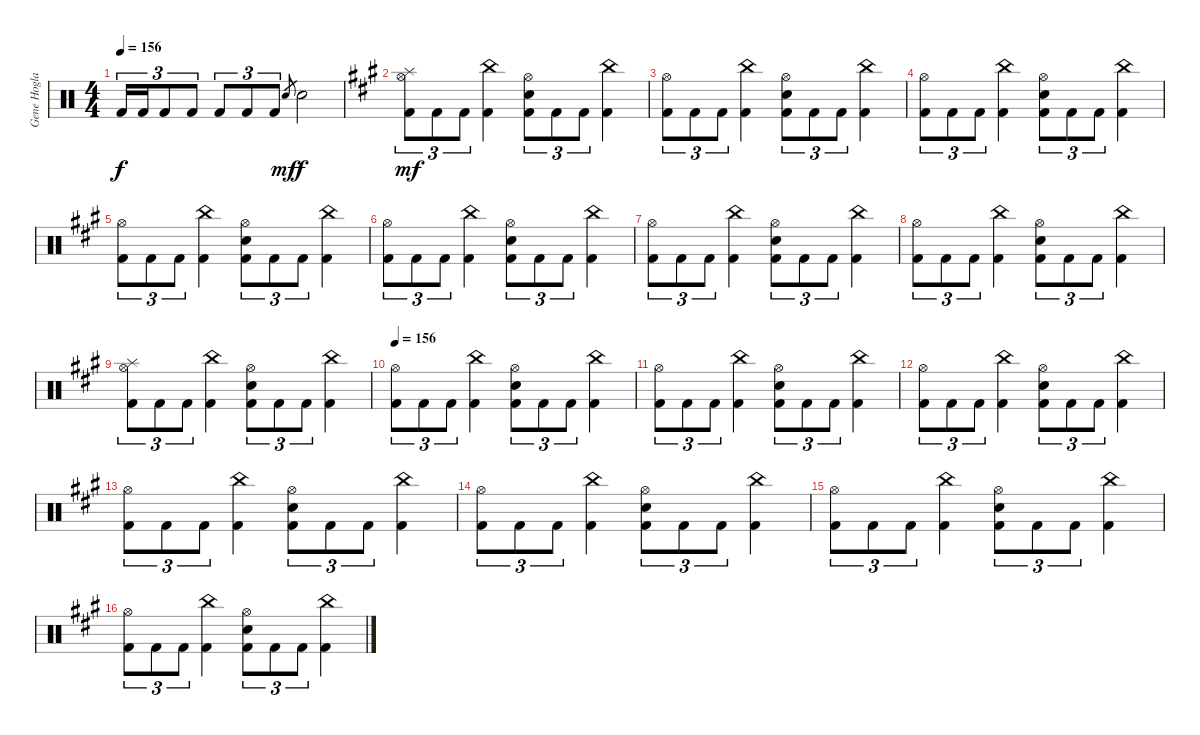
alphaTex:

\track ("Gene Hoglan" "Gene Hogla") {instrument percussion}
\staff {score}
\articulation defaults
\ts (4 4)
\tempo 156
\clef neutral
\ks c "Kick (hit) 2".16{tu (3 2) dy f} "Kick (hit) 2".16{tu (3 2)} "Kick (hit) 2".8{tu (3 2)} "Kick (hit) 2".8{tu (3 2)} "Kick (hit) 2".8{tu (3 2)} "Kick (hit) 2".8{tu (3 2)} "Kick (hit) 2".8{tu (3 2)} "Electric Snare (hit)".8{gr dy mf} "Electric Snare (hit)".2{dy f}
|
\ks a
("Hi-Hat (open)" "Splash (hit)" "Kick (hit) 2").8{tu (3 2) dy mf} "Kick (hit) 2".8{tu (3 2)} "Kick (hit) 2".8{tu (3 2)} ("China (hit)" "Kick (hit) 2").4 ("Hi-Hat (open)" "Electric Snare (hit)" "Kick (hit) 2").8{tu (3 2)} "Kick (hit) 2".8{tu (3 2)} "Kick (hit) 2".8{tu (3 2)} ("China (hit)" "Kick (hit) 2").4 |
("Hi-Hat (open)" "Kick (hit) 2").8{tu (3 2)} "Kick (hit) 2".8{tu (3 2)} "Kick (hit) 2".8{tu (3 2)} ("China (hit)" "Kick (hit) 2").4 ("Hi-Hat (open)" "Electric Snare (hit)" "Kick (hit) 2").8{tu (3 2)} "Kick (hit) 2".8{tu (3 2)} "Kick (hit) 2".8{tu (3 2)} ("China (hit)" "Kick (hit) 2").4 |
("Hi-Hat (open)" "Kick (hit) 2").8{tu (3 2)} "Kick (hit) 2".8{tu (3 2)} "Kick (hit) 2".8{tu (3 2)} ("China (hit)" "Kick (hit) 2").4 ("Hi-Hat (open)" "Electric Snare (hit)" "Kick (hit) 2").8{tu (3 2)} "Kick (hit) 2".8{tu (3 2)} "Kick (hit) 2".8{tu (3 2)} ("China (hit)" "Kick (hit) 2").4 |
("Hi-Hat (open)" "Kick (hit) 2").8{tu (3 2)} "Kick (hit) 2".8{tu (3 2)} "Kick (hit) 2".8{tu (3 2)} ("China (hit)" "Kick (hit) 2").4 ("Hi-Hat (open)" "Electric Snare (hit)" "Kick (hit) 2").8{tu (3 2)} "Kick (hit) 2".8{tu (3 2)} "Kick (hit) 2".8{tu (3 2)} ("China (hit)" "Kick (hit) 2").4 |
("Hi-Hat (open)" "Kick (hit) 2").8{tu (3 2)} "Kick (hit) 2".8{tu (3 2)} "Kick (hit) 2".8{tu (3 2)} ("China (hit)" "Kick (hit) 2").4 ("Hi-Hat (open)" "Electric Snare (hit)" "Kick (hit) 2").8{tu (3 2)} "Kick (hit) 2".8{tu (3 2)} "Kick (hit) 2".8{tu (3 2)} ("China (hit)" "Kick (hit) 2").4 |
("Hi-Hat (open)" "Kick (hit) 2").8{tu (3 2)} "Kick (hit) 2".8{tu (3 2)} "Kick (hit) 2".8{tu (3 2)} ("China (hit)" "Kick (hit) 2").4 ("Hi-Hat (open)" "Electric Snare (hit)" "Kick (hit) 2").8{tu (3 2)} "Kick (hit) 2".8{tu (3 2)} "Kick (hit) 2".8{tu (3 2)} ("China (hit)" "Kick (hit) 2").4 |
("Hi-Hat (open)" "Kick (hit) 2").8{tu (3 2)} "Kick (hit) 2".8{tu (3 2)} "Kick (hit) 2".8{tu (3 2)} ("China (hit)" "Kick (hit) 2").4 ("Hi-Hat (open)" "Electric Snare (hit)" "Kick (hit) 2").8{tu (3 2)} "Kick (hit) 2".8{tu (3 2)} "Kick (hit) 2".8{tu (3 2)} ("China (hit)" "Kick (hit) 2").4 |
("Hi-Hat (open)" "Splash (hit)" "Kick (hit) 2").8{tu (3 2)} "Kick (hit) 2".8{tu (3 2)} "Kick (hit) 2".8{tu (3 2)} ("China (hit)" "Kick (hit) 2").4 ("Hi-Hat (open)" "Electric Snare (hit)" "Kick (hit) 2").8{tu (3 2)} "Kick (hit) 2".8{tu (3 2)} "Kick (hit) 2".8{tu (3 2)} ("China (hit)" "Kick (hit) 2").4 |
\tempo 156
("Hi-Hat (open)" "Kick (hit) 2").8{tu (3 2)} "Kick (hit) 2".8{tu (3 2)} "Kick (hit) 2".8{tu (3 2)} ("China (hit)" "Kick (hit) 2").4 ("Hi-Hat (open)" "Electric Snare (hit)" "Kick (hit) 2").8{tu (3 2)} "Kick (hit) 2".8{tu (3 2)} "Kick (hit) 2".8{tu (3 2)} ("China (hit)" "Kick (hit) 2").4 |
("Hi-Hat (open)" "Kick (hit) 2").8{tu (3 2)} "Kick (hit) 2".8{tu (3 2)} "Kick (hit) 2".8{tu (3 2)} ("China (hit)" "Kick (hit) 2").4 ("Hi-Hat (open)" "Electric Snare (hit)" "Kick (hit) 2").8{tu (3 2)} "Kick (hit) 2".8{tu (3 2)} "Kick (hit) 2".8{tu (3 2)} ("China (hit)" "Kick (hit) 2").4 |
("Hi-Hat (open)" "Kick (hit) 2").8{tu (3 2)} "Kick (hit) 2".8{tu (3 2)} "Kick (hit) 2".8{tu (3 2)} ("China (hit)" "Kick (hit) 2").4 ("Hi-Hat (open)" "Electric Snare (hit)" "Kick (hit) 2").8{tu (3 2)} "Kick (hit) 2".8{tu (3 2)} "Kick (hit) 2".8{tu (3 2)} ("China (hit)" "Kick (hit) 2").4 |
("Hi-Hat (open)" "Kick (hit) 2").8{tu (3 2)} "Kick (hit) 2".8{tu (3 2)} "Kick (hit) 2".8{tu (3 2)} ("China (hit)" "Kick (hit) 2").4 ("Hi-Hat (open)" "Electric Snare (hit)" "Kick (hit) 2").8{tu (3 2)} "Kick (hit) 2".8{tu (3 2)} "Kick (hit) 2".8{tu (3 2)} ("China (hit)" "Kick (hit) 2").4 |
("Hi-Hat (open)" "Kick (hit) 2").8{tu (3 2)} "Kick (hit) 2".8{tu (3 2)} "Kick (hit) 2".8{tu (3 2)} ("China (hit)" "Kick (hit) 2").4 ("Hi-Hat (open)" "Electric Snare (hit)" "Kick (hit) 2").8{tu (3 2)} "Kick (hit) 2".8{tu (3 2)} "Kick (hit) 2".8{tu (3 2)} ("China (hit)" "Kick (hit) 2").4 |
("Hi-Hat (open)" "Kick (hit) 2").8{tu (3 2)} "Kick (hit) 2".8{tu (3 2)} "Kick (hit) 2".8{tu (3 2)} ("China (hit)" "Kick (hit) 2").4 ("Hi-Hat (open)" "Electric Snare (hit)" "Kick (hit) 2").8{tu (3 2)} "Kick (hit) 2".8{tu (3 2)} "Kick (hit) 2".8{tu (3 2)} ("China (hit)" "Kick (hit) 2").4 |
("Hi-Hat (open)" "Kick (hit) 2").8{tu (3 2)} "Kick (hit) 2".8{tu (3 2)} "Kick (hit) 2".8{tu (3 2)} ("China (hit)" "Kick (hit) 2").4 ("Hi-Hat (open)" "Electric Snare (hit)" "Kick (hit) 2").8{tu (3 2)} "Kick (hit) 2".8{tu (3 2)} "Kick (hit) 2".8{tu (3 2)} ("China (hit)" "Kick (hit) 2").4
